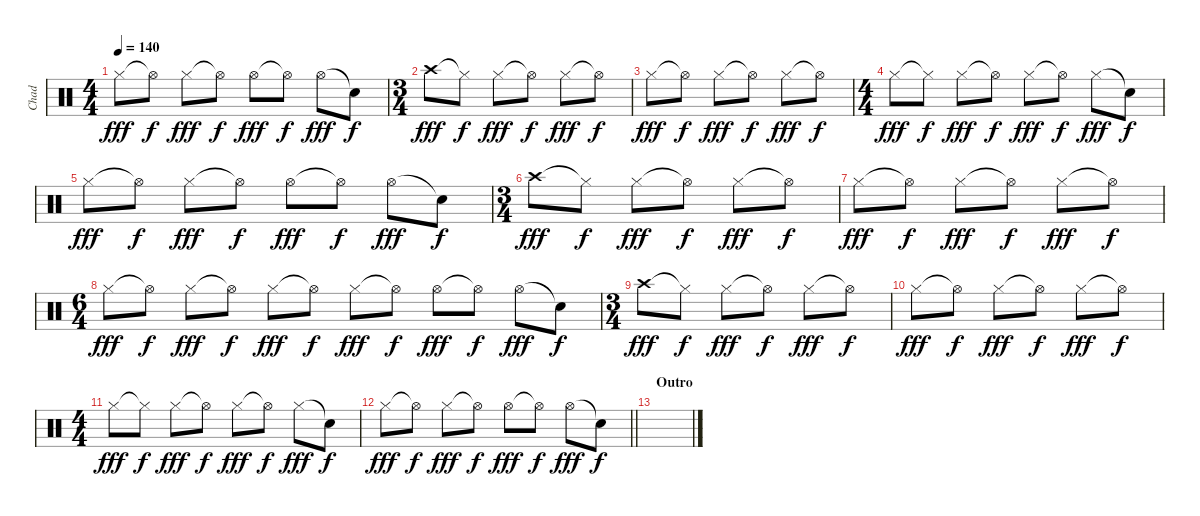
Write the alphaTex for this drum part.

\track ("Chad" "Chad") {instrument percussion}
\staff {score}
\articulation defaults
\ts (4 4)
\tempo 140
\clef neutral
\ks c "Hi-Hat (closed)".8{dy fff} "Hi-Hat (open)"{t}.8{dy f} "Hi-Hat (closed)".8{dy fff} "Hi-Hat (open)"{t}.8{dy f} "Hi-Hat (open)".8{dy fff} "Hi-Hat (open)"{t}.8{dy f} "Hi-Hat (open)".8{dy fff} "Snare (hit)"{t}.8{dy f}
|
\ts (3 4)
"Crash high (hit)".8{dy fff} "Hi-Hat (closed)"{t}.8{dy f} "Hi-Hat (closed)".8{dy fff} "Hi-Hat (open)"{t}.8{dy f} "Hi-Hat (closed)".8{dy fff} "Hi-Hat (open)"{t}.8{dy f} |
"Hi-Hat (closed)".8{dy fff} "Hi-Hat (open)"{t}.8{dy f} "Hi-Hat (closed)".8{dy fff} "Hi-Hat (open)"{t}.8{dy f} "Hi-Hat (closed)".8{dy fff} "Hi-Hat (open)"{t}.8{dy f} |
\ts (4 4)
"Hi-Hat (closed)".8{dy fff} "Hi-Hat (closed)"{t}.8{dy f} "Hi-Hat (closed)".8{dy fff} "Hi-Hat (open)"{t}.8{dy f} "Hi-Hat (closed)".8{dy fff} "Hi-Hat (open)"{t}.8{dy f} "Hi-Hat (closed)".8{dy fff} "Snare (hit)"{t}.8{dy f} |
"Hi-Hat (closed)".8{dy fff} "Hi-Hat (open)"{t}.8{dy f} "Hi-Hat (closed)".8{dy fff} "Hi-Hat (open)"{t}.8{dy f} "Hi-Hat (open)".8{dy fff} "Hi-Hat (open)"{t}.8{dy f} "Hi-Hat (open)".8{dy fff} "Snare (hit)"{t}.8{dy f} |
\ts (3 4)
"Crash high (hit)".8{dy fff} "Hi-Hat (closed)"{t}.8{dy f} "Hi-Hat (closed)".8{dy fff} "Hi-Hat (open)"{t}.8{dy f} "Hi-Hat (closed)".8{dy fff} "Hi-Hat (open)"{t}.8{dy f} |
"Hi-Hat (closed)".8{dy fff} "Hi-Hat (open)"{t}.8{dy f} "Hi-Hat (closed)".8{dy fff} "Hi-Hat (open)"{t}.8{dy f} "Hi-Hat (closed)".8{dy fff} "Hi-Hat (open)"{t}.8{dy f} |
\ts (6 4)
"Hi-Hat (closed)".8{dy fff} "Hi-Hat (open)"{t}.8{dy f} "Hi-Hat (closed)".8{dy fff} "Hi-Hat (open)"{t}.8{dy f} "Hi-Hat (closed)".8{dy fff} "Hi-Hat (open)"{t}.8{dy f} "Hi-Hat (closed)".8{dy fff} "Hi-Hat (open)"{t}.8{dy f} "Hi-Hat (open)".8{dy fff} "Hi-Hat (open)"{t}.8{dy f} "Hi-Hat (open)".8{dy fff} "Snare (hit)"{t}.8{dy f} |
\ts (3 4)
"Crash high (hit)".8{dy fff} "Hi-Hat (closed)"{t}.8{dy f} "Hi-Hat (closed)".8{dy fff} "Hi-Hat (open)"{t}.8{dy f} "Hi-Hat (closed)".8{dy fff} "Hi-Hat (open)"{t}.8{dy f} |
"Hi-Hat (closed)".8{dy fff} "Hi-Hat (open)"{t}.8{dy f} "Hi-Hat (closed)".8{dy fff} "Hi-Hat (open)"{t}.8{dy f} "Hi-Hat (closed)".8{dy fff} "Hi-Hat (open)"{t}.8{dy f} |
\ts (4 4)
"Hi-Hat (closed)".8{dy fff} "Hi-Hat (closed)"{t}.8{dy f} "Hi-Hat (closed)".8{dy fff} "Hi-Hat (open)"{t}.8{dy f} "Hi-Hat (closed)".8{dy fff} "Hi-Hat (open)"{t}.8{dy f} "Hi-Hat (closed)".8{dy fff} "Snare (hit)"{t}.8{dy f} |
\barLineRight lightlight "Hi-Hat (closed)".8{dy fff} "Hi-Hat (open)"{t}.8{dy f} "Hi-Hat (closed)".8{dy fff} "Hi-Hat (open)"{t}.8{dy f} "Hi-Hat (open)".8{dy fff} "Hi-Hat (open)"{t}.8{dy f} "Hi-Hat (open)".8{dy fff} "Snare (hit)"{t}.8{dy f}
|
\section ("" "Outro")
